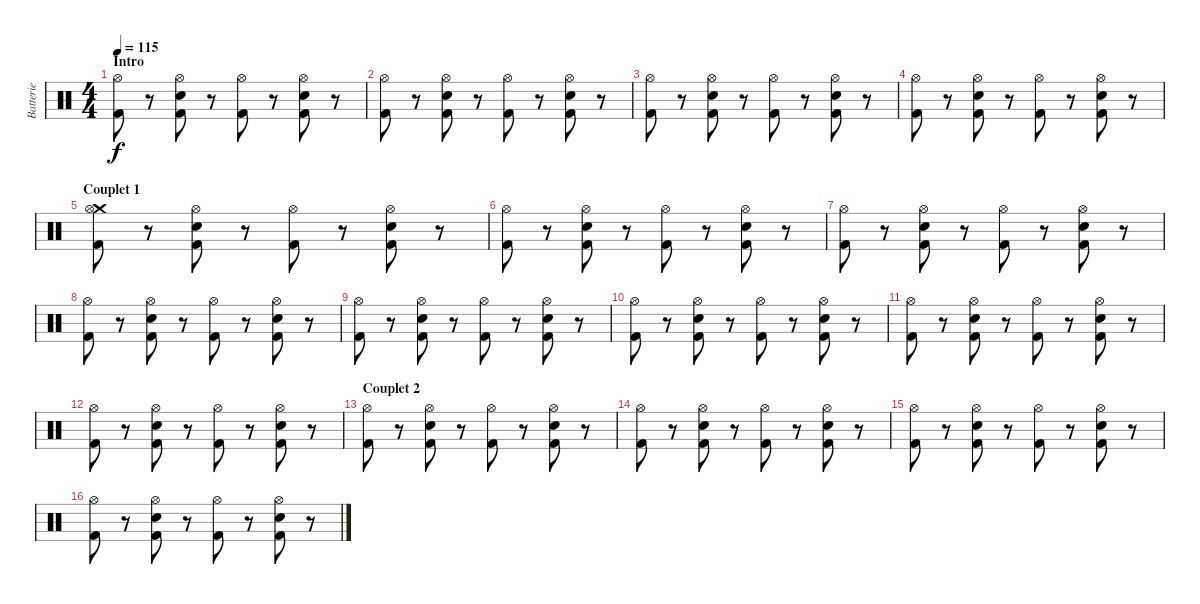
\track ("Batterie" "Batterie") {instrument percussion}
\staff {score}
\articulation defaults
\ts (4 4)
\section ("" "Intro")
\tempo 115
\clef neutral
\ks c
("Hi-Hat (open)" "Kick (hit) 2").8{dy f} r.8 ("Electric Snare (hit)" "Hi-Hat (open)" "Kick (hit) 2").8 r.8 ("Hi-Hat (open)" "Kick (hit) 2").8 r.8 ("Electric Snare (hit)" "Hi-Hat (open)" "Kick (hit) 2").8 r.8 |
("Hi-Hat (open)" "Kick (hit) 2").8 r.8 ("Electric Snare (hit)" "Hi-Hat (open)" "Kick (hit) 2").8 r.8 ("Hi-Hat (open)" "Kick (hit) 2").8 r.8 ("Electric Snare (hit)" "Hi-Hat (open)" "Kick (hit) 2").8 r.8 |
("Hi-Hat (open)" "Kick (hit) 2").8 r.8 ("Electric Snare (hit)" "Hi-Hat (open)" "Kick (hit) 2").8 r.8 ("Hi-Hat (open)" "Kick (hit) 2").8 r.8 ("Electric Snare (hit)" "Hi-Hat (open)" "Kick (hit) 2").8 r.8 |
("Hi-Hat (open)" "Kick (hit) 2").8 r.8 ("Electric Snare (hit)" "Hi-Hat (open)" "Kick (hit) 2").8 r.8 ("Hi-Hat (open)" "Kick (hit) 2").8 r.8 ("Electric Snare (hit)" "Hi-Hat (open)" "Kick (hit) 2").8 r.8 |
\section ("" "Couplet 1")
("Crash medium (hit)" "Hi-Hat (open)" "Kick (hit) 2").8 r.8 ("Electric Snare (hit)" "Hi-Hat (open)" "Kick (hit) 2").8 r.8 ("Hi-Hat (open)" "Kick (hit) 2").8 r.8 ("Electric Snare (hit)" "Hi-Hat (open)" "Kick (hit) 2").8 r.8 |
("Hi-Hat (open)" "Kick (hit) 2").8 r.8 ("Electric Snare (hit)" "Hi-Hat (open)" "Kick (hit) 2").8 r.8 ("Hi-Hat (open)" "Kick (hit) 2").8 r.8 ("Electric Snare (hit)" "Hi-Hat (open)" "Kick (hit) 2").8 r.8 |
("Hi-Hat (open)" "Kick (hit) 2").8 r.8 ("Electric Snare (hit)" "Hi-Hat (open)" "Kick (hit) 2").8 r.8 ("Hi-Hat (open)" "Kick (hit) 2").8 r.8 ("Electric Snare (hit)" "Hi-Hat (open)" "Kick (hit) 2").8 r.8 |
("Hi-Hat (open)" "Kick (hit) 2").8 r.8 ("Electric Snare (hit)" "Hi-Hat (open)" "Kick (hit) 2").8 r.8 ("Hi-Hat (open)" "Kick (hit) 2").8 r.8 ("Electric Snare (hit)" "Hi-Hat (open)" "Kick (hit) 2").8 r.8 |
("Hi-Hat (open)" "Kick (hit) 2").8 r.8 ("Electric Snare (hit)" "Hi-Hat (open)" "Kick (hit) 2").8 r.8 ("Hi-Hat (open)" "Kick (hit) 2").8 r.8 ("Electric Snare (hit)" "Hi-Hat (open)" "Kick (hit) 2").8 r.8 |
("Hi-Hat (open)" "Kick (hit) 2").8 r.8 ("Electric Snare (hit)" "Hi-Hat (open)" "Kick (hit) 2").8 r.8 ("Hi-Hat (open)" "Kick (hit) 2").8 r.8 ("Electric Snare (hit)" "Hi-Hat (open)" "Kick (hit) 2").8 r.8 |
("Hi-Hat (open)" "Kick (hit) 2").8 r.8 ("Electric Snare (hit)" "Hi-Hat (open)" "Kick (hit) 2").8 r.8 ("Hi-Hat (open)" "Kick (hit) 2").8 r.8 ("Electric Snare (hit)" "Hi-Hat (open)" "Kick (hit) 2").8 r.8 |
("Hi-Hat (open)" "Kick (hit) 2").8 r.8 ("Electric Snare (hit)" "Hi-Hat (open)" "Kick (hit) 2").8 r.8 ("Hi-Hat (open)" "Kick (hit) 2").8 r.8 ("Electric Snare (hit)" "Hi-Hat (open)" "Kick (hit) 2").8 r.8 |
\section ("" "Couplet 2")
("Hi-Hat (open)" "Kick (hit) 2").8 r.8 ("Electric Snare (hit)" "Hi-Hat (open)" "Kick (hit) 2").8 r.8 ("Hi-Hat (open)" "Kick (hit) 2").8 r.8 ("Electric Snare (hit)" "Hi-Hat (open)" "Kick (hit) 2").8 r.8 |
("Hi-Hat (open)" "Kick (hit) 2").8 r.8 ("Electric Snare (hit)" "Hi-Hat (open)" "Kick (hit) 2").8 r.8 ("Hi-Hat (open)" "Kick (hit) 2").8 r.8 ("Electric Snare (hit)" "Hi-Hat (open)" "Kick (hit) 2").8 r.8 |
("Hi-Hat (open)" "Kick (hit) 2").8 r.8 ("Electric Snare (hit)" "Hi-Hat (open)" "Kick (hit) 2").8 r.8 ("Hi-Hat (open)" "Kick (hit) 2").8 r.8 ("Electric Snare (hit)" "Hi-Hat (open)" "Kick (hit) 2").8 r.8 |
("Hi-Hat (open)" "Kick (hit) 2").8 r.8 ("Electric Snare (hit)" "Hi-Hat (open)" "Kick (hit) 2").8 r.8 ("Hi-Hat (open)" "Kick (hit) 2").8 r.8 ("Electric Snare (hit)" "Hi-Hat (open)" "Kick (hit) 2").8 r.8
